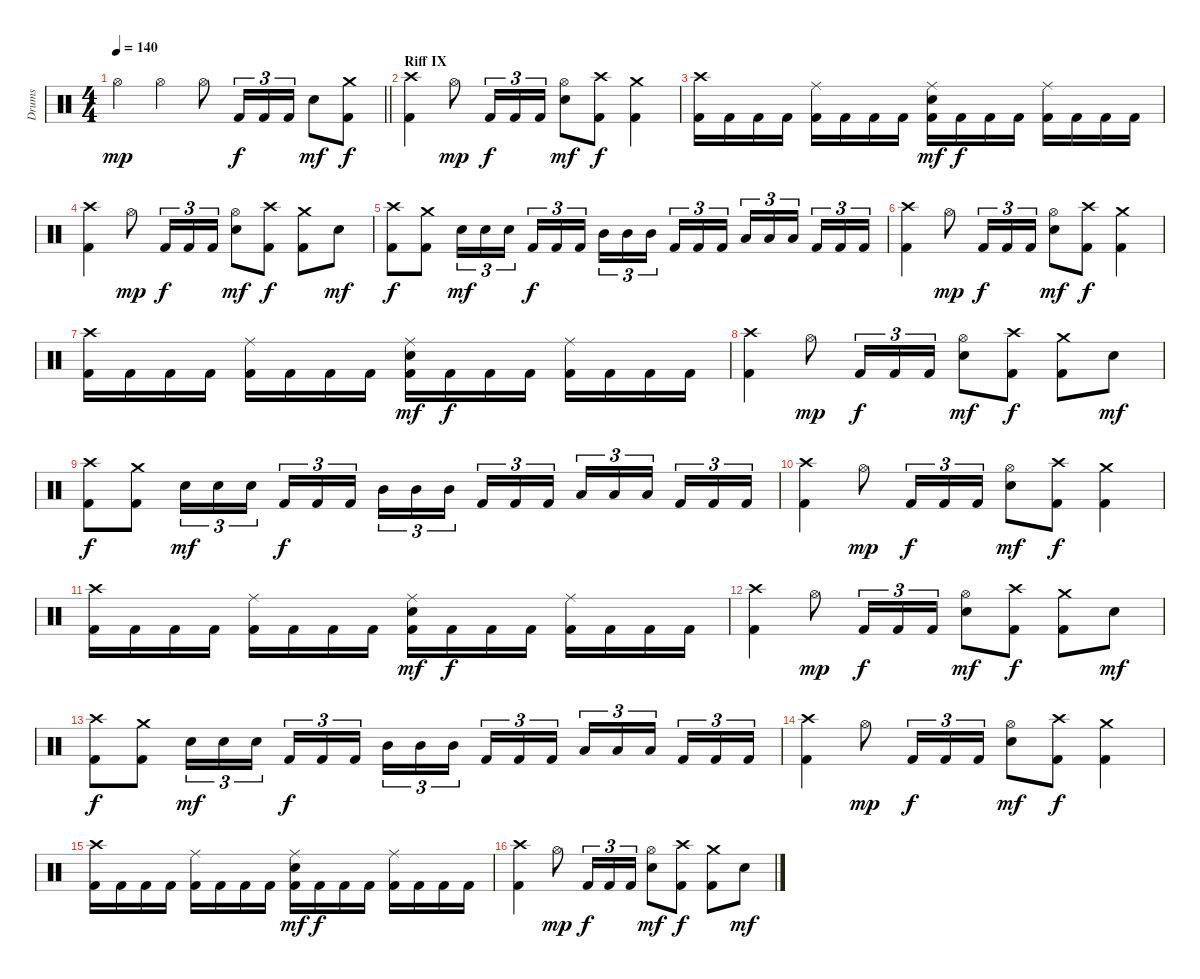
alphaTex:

\track ("Drums" "Drums") {instrument percussion}
\staff {score}
\articulation defaults
\ts (4 4)
\tempo 140
\clef neutral
\barLineRight lightlight
\ks c "Hi-Hat (open)".4{dy mp} "Hi-Hat (open)".4 "Hi-Hat (open)".8 "Kick (hit) 2".16{tu (3 2) dy f} "Kick (hit) 2".16{tu (3 2)} "Kick (hit) 2".16{tu (3 2)} "Electric Snare (hit)".8{dy mf}
("Crash medium (hit)" "Kick (hit) 2").8{dy f} |
\section ("" "Riff IX")
("Crash high (hit)" "Kick (hit) 2").4 "Hi-Hat (open)".8{dy mp} "Kick (hit) 2".16{tu (3 2) dy f} "Kick (hit) 2".16{tu (3 2)} "Kick (hit) 2".16{tu (3 2)} ("Hi-Hat (open)" "Electric Snare (hit)").8{dy mf} ("Crash high (hit)" "Kick (hit) 2").8{dy f} ("Crash medium (hit)" "Kick (hit) 2").4 |
("Crash high (hit)" "Kick (hit) 2").16 "Kick (hit) 2".16 "Kick (hit) 2".16 "Kick (hit) 2".16 ("Ride (middle)" "Kick (hit) 2").16 "Kick (hit) 2".16 "Kick (hit) 2".16 "Kick (hit) 2".16 ("Ride (middle)" "Electric Snare (hit)" "Kick (hit) 2").16{dy mf} "Kick (hit) 2".16{dy f} "Kick (hit) 2".16 "Kick (hit) 2".16 ("Ride (middle)" "Kick (hit) 2").16 "Kick (hit) 2".16 "Kick (hit) 2".16 "Kick (hit) 2".16 |
("Crash high (hit)" "Kick (hit) 2").4 "Hi-Hat (open)".8{dy mp} "Kick (hit) 2".16{tu (3 2) dy f} "Kick (hit) 2".16{tu (3 2)} "Kick (hit) 2".16{tu (3 2)} ("Hi-Hat (open)" "Electric Snare (hit)").8{dy mf} ("Crash high (hit)" "Kick (hit) 2").8{dy f} ("Crash medium (hit)" "Kick (hit) 2").8 "Electric Snare (hit)".8{dy mf} |
("Crash high (hit)" "Kick (hit) 2").8{dy f} ("Crash medium (hit)" "Kick (hit) 2").8 "Electric Snare (hit)".16{tu (3 2) dy mf} "Electric Snare (hit)".16{tu (3 2)} "Electric Snare (hit)".16{tu (3 2) beam splitsecondary} "Kick (hit) 2".16{tu (3 2) dy f} "Kick (hit) 2".16{tu (3 2)} "Kick (hit) 2".16{tu (3 2)} "Mid Tom (hit)".16{tu (3 2)} "Mid Tom (hit)".16{tu (3 2)} "Mid Tom (hit)".16{tu (3 2) beam splitsecondary} "Kick (hit) 2".16{tu (3 2)} "Kick (hit) 2".16{tu (3 2)} "Kick (hit) 2".16{tu (3 2)} "Low Tom (hit)".16{tu (3 2)} "Low Tom (hit)".16{tu (3 2)} "Low Tom (hit)".16{tu (3 2) beam splitsecondary} "Kick (hit) 2".16{tu (3 2)} "Kick (hit) 2".16{tu (3 2)} "Kick (hit) 2".16{tu (3 2)} |
("Crash high (hit)" "Kick (hit) 2").4 "Hi-Hat (open)".8{dy mp} "Kick (hit) 2".16{tu (3 2) dy f} "Kick (hit) 2".16{tu (3 2)} "Kick (hit) 2".16{tu (3 2)} ("Hi-Hat (open)" "Electric Snare (hit)").8{dy mf} ("Crash high (hit)" "Kick (hit) 2").8{dy f} ("Crash medium (hit)" "Kick (hit) 2").4 |
("Crash high (hit)" "Kick (hit) 2").16 "Kick (hit) 2".16 "Kick (hit) 2".16 "Kick (hit) 2".16 ("Ride (middle)" "Kick (hit) 2").16 "Kick (hit) 2".16 "Kick (hit) 2".16 "Kick (hit) 2".16 ("Ride (middle)" "Electric Snare (hit)" "Kick (hit) 2").16{dy mf} "Kick (hit) 2".16{dy f} "Kick (hit) 2".16 "Kick (hit) 2".16 ("Ride (middle)" "Kick (hit) 2").16 "Kick (hit) 2".16 "Kick (hit) 2".16 "Kick (hit) 2".16 |
("Crash high (hit)" "Kick (hit) 2").4 "Hi-Hat (open)".8{dy mp} "Kick (hit) 2".16{tu (3 2) dy f} "Kick (hit) 2".16{tu (3 2)} "Kick (hit) 2".16{tu (3 2)} ("Hi-Hat (open)" "Electric Snare (hit)").8{dy mf} ("Crash high (hit)" "Kick (hit) 2").8{dy f} ("Crash medium (hit)" "Kick (hit) 2").8 "Electric Snare (hit)".8{dy mf} |
("Crash high (hit)" "Kick (hit) 2").8{dy f} ("Crash medium (hit)" "Kick (hit) 2").8 "Electric Snare (hit)".16{tu (3 2) dy mf} "Electric Snare (hit)".16{tu (3 2)} "Electric Snare (hit)".16{tu (3 2) beam splitsecondary} "Kick (hit) 2".16{tu (3 2) dy f} "Kick (hit) 2".16{tu (3 2)} "Kick (hit) 2".16{tu (3 2)} "Mid Tom (hit)".16{tu (3 2)} "Mid Tom (hit)".16{tu (3 2)} "Mid Tom (hit)".16{tu (3 2) beam splitsecondary} "Kick (hit) 2".16{tu (3 2)} "Kick (hit) 2".16{tu (3 2)} "Kick (hit) 2".16{tu (3 2)} "Low Tom (hit)".16{tu (3 2)} "Low Tom (hit)".16{tu (3 2)} "Low Tom (hit)".16{tu (3 2) beam splitsecondary} "Kick (hit) 2".16{tu (3 2)} "Kick (hit) 2".16{tu (3 2)} "Kick (hit) 2".16{tu (3 2)} |
("Crash high (hit)" "Kick (hit) 2").4 "Hi-Hat (open)".8{dy mp} "Kick (hit) 2".16{tu (3 2) dy f} "Kick (hit) 2".16{tu (3 2)} "Kick (hit) 2".16{tu (3 2)} ("Hi-Hat (open)" "Electric Snare (hit)").8{dy mf} ("Crash high (hit)" "Kick (hit) 2").8{dy f} ("Crash medium (hit)" "Kick (hit) 2").4 |
("Crash high (hit)" "Kick (hit) 2").16 "Kick (hit) 2".16 "Kick (hit) 2".16 "Kick (hit) 2".16 ("Ride (middle)" "Kick (hit) 2").16 "Kick (hit) 2".16 "Kick (hit) 2".16 "Kick (hit) 2".16 ("Ride (middle)" "Electric Snare (hit)" "Kick (hit) 2").16{dy mf} "Kick (hit) 2".16{dy f} "Kick (hit) 2".16 "Kick (hit) 2".16 ("Ride (middle)" "Kick (hit) 2").16 "Kick (hit) 2".16 "Kick (hit) 2".16 "Kick (hit) 2".16 |
("Crash high (hit)" "Kick (hit) 2").4 "Hi-Hat (open)".8{dy mp} "Kick (hit) 2".16{tu (3 2) dy f} "Kick (hit) 2".16{tu (3 2)} "Kick (hit) 2".16{tu (3 2)} ("Hi-Hat (open)" "Electric Snare (hit)").8{dy mf} ("Crash high (hit)" "Kick (hit) 2").8{dy f} ("Crash medium (hit)" "Kick (hit) 2").8 "Electric Snare (hit)".8{dy mf} |
("Crash high (hit)" "Kick (hit) 2").8{dy f} ("Crash medium (hit)" "Kick (hit) 2").8 "Electric Snare (hit)".16{tu (3 2) dy mf} "Electric Snare (hit)".16{tu (3 2)} "Electric Snare (hit)".16{tu (3 2) beam splitsecondary} "Kick (hit) 2".16{tu (3 2) dy f} "Kick (hit) 2".16{tu (3 2)} "Kick (hit) 2".16{tu (3 2)} "Mid Tom (hit)".16{tu (3 2)} "Mid Tom (hit)".16{tu (3 2)} "Mid Tom (hit)".16{tu (3 2) beam splitsecondary} "Kick (hit) 2".16{tu (3 2)} "Kick (hit) 2".16{tu (3 2)} "Kick (hit) 2".16{tu (3 2)} "Low Tom (hit)".16{tu (3 2)} "Low Tom (hit)".16{tu (3 2)} "Low Tom (hit)".16{tu (3 2) beam splitsecondary} "Kick (hit) 2".16{tu (3 2)} "Kick (hit) 2".16{tu (3 2)} "Kick (hit) 2".16{tu (3 2)} |
("Crash high (hit)" "Kick (hit) 2").4 "Hi-Hat (open)".8{dy mp} "Kick (hit) 2".16{tu (3 2) dy f} "Kick (hit) 2".16{tu (3 2)} "Kick (hit) 2".16{tu (3 2)} ("Hi-Hat (open)" "Electric Snare (hit)").8{dy mf} ("Crash high (hit)" "Kick (hit) 2").8{dy f} ("Crash medium (hit)" "Kick (hit) 2").4 |
("Crash high (hit)" "Kick (hit) 2").16 "Kick (hit) 2".16 "Kick (hit) 2".16 "Kick (hit) 2".16 ("Ride (middle)" "Kick (hit) 2").16 "Kick (hit) 2".16 "Kick (hit) 2".16 "Kick (hit) 2".16 ("Ride (middle)" "Electric Snare (hit)" "Kick (hit) 2").16{dy mf} "Kick (hit) 2".16{dy f} "Kick (hit) 2".16 "Kick (hit) 2".16 ("Ride (middle)" "Kick (hit) 2").16 "Kick (hit) 2".16 "Kick (hit) 2".16 "Kick (hit) 2".16 |
("Crash high (hit)" "Kick (hit) 2").4 "Hi-Hat (open)".8{dy mp} "Kick (hit) 2".16{tu (3 2) dy f} "Kick (hit) 2".16{tu (3 2)} "Kick (hit) 2".16{tu (3 2)} ("Hi-Hat (open)" "Electric Snare (hit)").8{dy mf} ("Crash high (hit)" "Kick (hit) 2").8{dy f} ("Crash medium (hit)" "Kick (hit) 2").8 "Electric Snare (hit)".8{dy mf}
